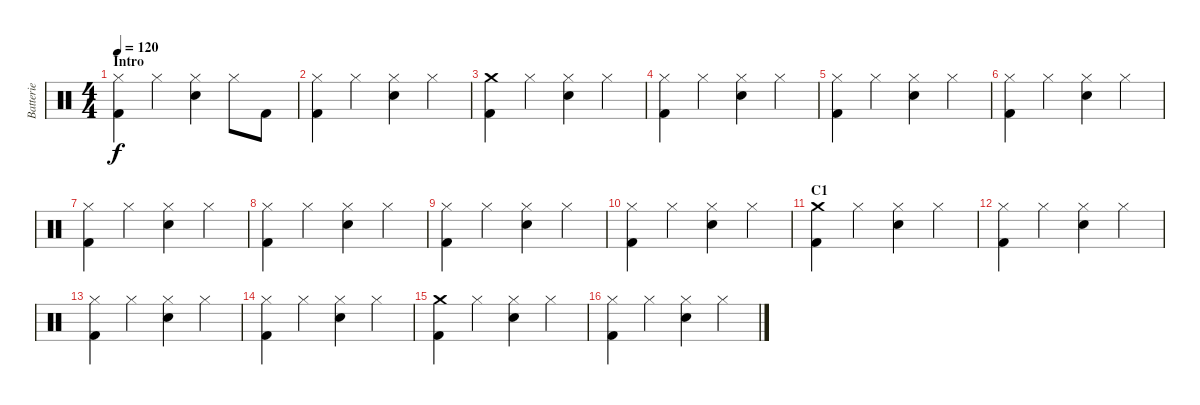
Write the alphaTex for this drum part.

\track ("Batterie" "Batterie") {instrument percussion}
\staff {score}
\articulation defaults
\ts (4 4)
\section ("" "Intro")
\tempo 120
\clef neutral
\ks c
("Hi-Hat (closed)" "Kick (hit) 2").4{dy f} "Hi-Hat (closed)".4 ("Hi-Hat (closed)" "Snare (hit) 2").4 "Hi-Hat (closed)".8 "Kick (hit) 2".8 |
("Hi-Hat (closed)" "Kick (hit) 2").4 "Hi-Hat (closed)".4 ("Hi-Hat (closed)" "Snare (hit) 2").4 "Hi-Hat (closed)".4 |
("Crash medium (hit)" "Kick (hit) 2").4 "Hi-Hat (closed)".4 ("Hi-Hat (closed)" "Snare (hit) 2").4 "Hi-Hat (closed)".4 |
("Hi-Hat (closed)" "Kick (hit) 2").4 "Hi-Hat (closed)".4 ("Hi-Hat (closed)" "Snare (hit) 2").4 "Hi-Hat (closed)".4 |
("Hi-Hat (closed)" "Kick (hit) 2").4 "Hi-Hat (closed)".4 ("Hi-Hat (closed)" "Snare (hit) 2").4 "Hi-Hat (closed)".4 |
("Hi-Hat (closed)" "Kick (hit) 2").4 "Hi-Hat (closed)".4 ("Hi-Hat (closed)" "Snare (hit) 2").4 "Hi-Hat (closed)".4 |
("Hi-Hat (closed)" "Kick (hit) 2").4 "Hi-Hat (closed)".4 ("Hi-Hat (closed)" "Snare (hit) 2").4 "Hi-Hat (closed)".4 |
("Hi-Hat (closed)" "Kick (hit) 2").4 "Hi-Hat (closed)".4 ("Hi-Hat (closed)" "Snare (hit) 2").4 "Hi-Hat (closed)".4 |
("Hi-Hat (closed)" "Kick (hit) 2").4 "Hi-Hat (closed)".4 ("Hi-Hat (closed)" "Snare (hit) 2").4 "Hi-Hat (closed)".4 |
("Hi-Hat (closed)" "Kick (hit) 2").4 "Hi-Hat (closed)".4 ("Hi-Hat (closed)" "Snare (hit) 2").4 "Hi-Hat (closed)".4 |
\section ("" "C1")
("Crash medium (hit)" "Kick (hit) 2").4 "Hi-Hat (closed)".4 ("Hi-Hat (closed)" "Snare (hit) 2").4 "Hi-Hat (closed)".4 |
("Hi-Hat (closed)" "Kick (hit) 2").4 "Hi-Hat (closed)".4 ("Hi-Hat (closed)" "Snare (hit) 2").4 "Hi-Hat (closed)".4 |
("Hi-Hat (closed)" "Kick (hit) 2").4 "Hi-Hat (closed)".4 ("Hi-Hat (closed)" "Snare (hit) 2").4 "Hi-Hat (closed)".4 |
("Hi-Hat (closed)" "Kick (hit) 2").4 "Hi-Hat (closed)".4 ("Hi-Hat (closed)" "Snare (hit) 2").4 "Hi-Hat (closed)".4 |
("Crash medium (hit)" "Kick (hit) 2").4 "Hi-Hat (closed)".4 ("Hi-Hat (closed)" "Snare (hit) 2").4 "Hi-Hat (closed)".4 |
("Hi-Hat (closed)" "Kick (hit) 2").4 "Hi-Hat (closed)".4 ("Hi-Hat (closed)" "Snare (hit) 2").4 "Hi-Hat (closed)".4
